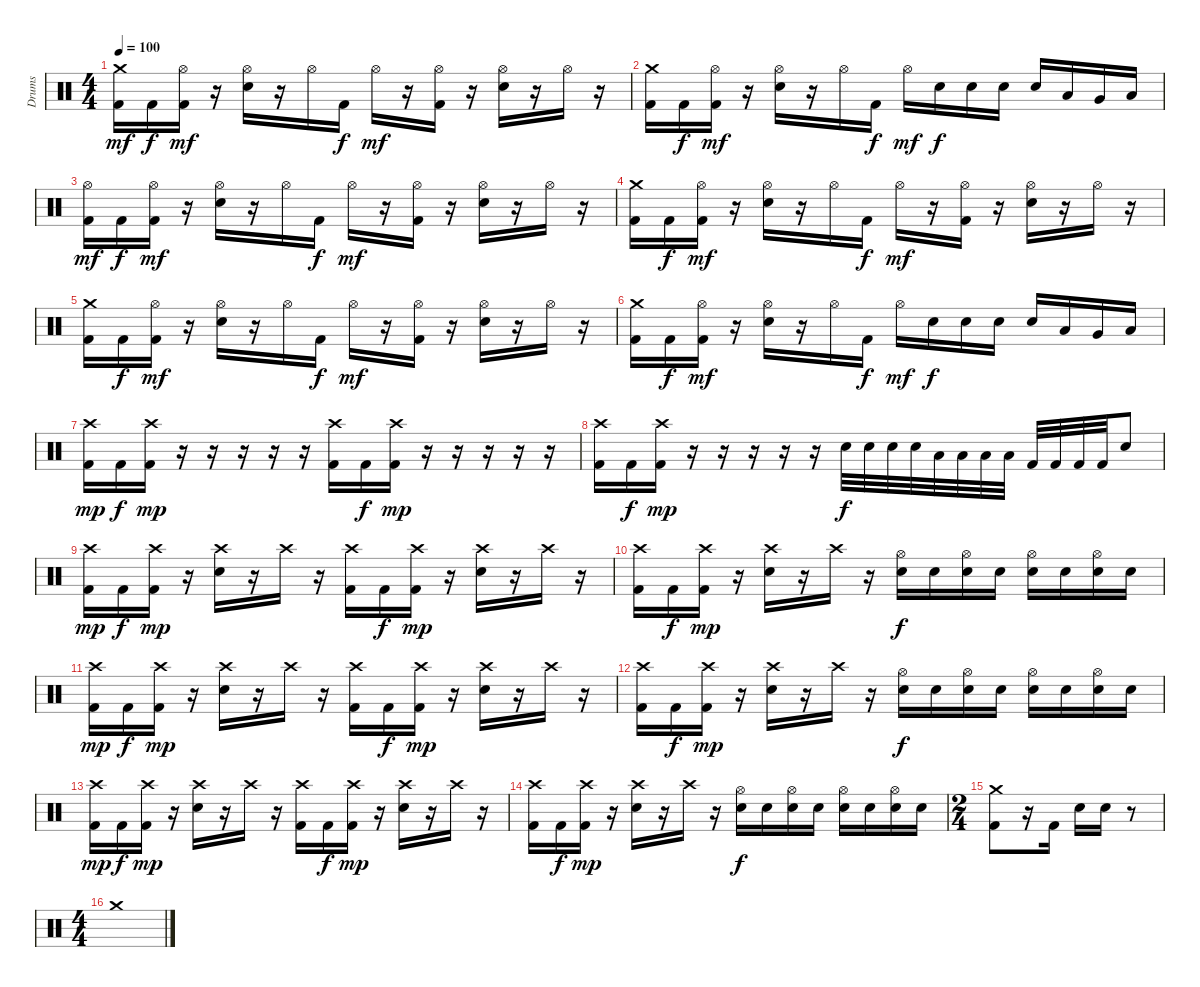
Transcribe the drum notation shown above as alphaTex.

\track ("Drums" "Drums") {instrument percussion}
\staff {score}
\articulation defaults
\ts (4 4)
\tempo 100
\clef neutral
\ks c
("Crash medium (hit)" "Kick (hit) 2").16{dy mf} "Kick (hit) 2".16{dy f} ("Hi-Hat (open)" "Kick (hit) 2").16{dy mf} r.16 ("Hi-Hat (open)" "Snare (hit) 2").16 r.16 "Hi-Hat (open)".16 "Kick (hit) 2".16{dy f} "Hi-Hat (open)".16{dy mf} r.16 ("Hi-Hat (open)" "Kick (hit) 2").16 r.16 ("Hi-Hat (open)" "Snare (hit) 2").16 r.16 "Hi-Hat (open)".16 r.16 |
("Crash medium (hit)" "Kick (hit) 2").16 "Kick (hit) 2".16{dy f} ("Hi-Hat (open)" "Kick (hit) 2").16{dy mf} r.16 ("Hi-Hat (open)" "Snare (hit) 2").16 r.16 "Hi-Hat (open)".16 "Kick (hit) 2".16{dy f} "Hi-Hat (open)".16{dy mf} "Snare (hit) 2".16{dy f} "Snare (hit) 2".16 "Snare (hit) 2".16 "Snare (hit) 2".16 "Low Tom (hit)".16 "Very Low Tom (hit)".16 "Low Floor Tom (hit)".16 |
("Hi-Hat (open)" "Kick (hit) 2").16{dy mf} "Kick (hit) 2".16{dy f} ("Hi-Hat (open)" "Kick (hit) 2").16{dy mf} r.16 ("Hi-Hat (open)" "Snare (hit) 2").16 r.16 "Hi-Hat (open)".16 "Kick (hit) 2".16{dy f} "Hi-Hat (open)".16{dy mf} r.16 ("Hi-Hat (open)" "Kick (hit) 2").16 r.16 ("Hi-Hat (open)" "Snare (hit) 2").16 r.16 "Hi-Hat (open)".16 r.16 |
("Crash medium (hit)" "Kick (hit) 2").16 "Kick (hit) 2".16{dy f} ("Hi-Hat (open)" "Kick (hit) 2").16{dy mf} r.16 ("Hi-Hat (open)" "Snare (hit) 2").16 r.16 "Hi-Hat (open)".16 "Kick (hit) 2".16{dy f} "Hi-Hat (open)".16{dy mf} r.16 ("Hi-Hat (open)" "Kick (hit) 2").16 r.16 ("Hi-Hat (open)" "Snare (hit) 2").16 r.16 "Hi-Hat (open)".16 r.16 |
("Crash medium (hit)" "Kick (hit) 2").16 "Kick (hit) 2".16{dy f} ("Hi-Hat (open)" "Kick (hit) 2").16{dy mf} r.16 ("Hi-Hat (open)" "Snare (hit) 2").16 r.16 "Hi-Hat (open)".16 "Kick (hit) 2".16{dy f} "Hi-Hat (open)".16{dy mf} r.16 ("Hi-Hat (open)" "Kick (hit) 2").16 r.16 ("Hi-Hat (open)" "Snare (hit) 2").16 r.16 "Hi-Hat (open)".16 r.16 |
("Crash medium (hit)" "Kick (hit) 2").16 "Kick (hit) 2".16{dy f} ("Hi-Hat (open)" "Kick (hit) 2").16{dy mf} r.16 ("Hi-Hat (open)" "Snare (hit) 2").16 r.16 "Hi-Hat (open)".16 "Kick (hit) 2".16{dy f} "Hi-Hat (open)".16{dy mf} "Snare (hit) 2".16{dy f} "Snare (hit) 2".16 "Snare (hit) 2".16 "Snare (hit) 2".16 "Low Tom (hit)".16 "Very Low Tom (hit)".16 "Low Floor Tom (hit)".16 |
("Crash high (hit)" "Kick (hit) 2").16{dy mp} "Kick (hit) 2".16{dy f} ("Crash high (hit)" "Kick (hit) 2").16{dy mp} r.16 r.16 r.16 r.16 r.16 ("Crash high (hit)" "Kick (hit) 2").16 "Kick (hit) 2".16{dy f} ("Crash high (hit)" "Kick (hit) 2").16{dy mp} r.16 r.16 r.16 r.16 r.16 |
("Crash high (hit)" "Kick (hit) 2").16 "Kick (hit) 2".16{dy f} ("Crash high (hit)" "Kick (hit) 2").16{dy mp} r.16 r.16 r.16 r.16 r.16 "Snare (hit) 2".32{dy f} "Snare (hit) 2".32 "Snare (hit) 2".32 "Snare (hit) 2".32 "Low Tom (hit)".32 "Low Tom (hit)".32 "Low Tom (hit)".32 "Low Tom (hit)".32 "Kick (hit) 2".32 "Kick (hit) 2".32 "Kick (hit) 2".32 "Kick (hit) 2".32 "Snare (hit) 2".8 |
("Crash high (hit)" "Kick (hit) 2").16{dy mp} "Kick (hit) 2".16{dy f} ("Crash high (hit)" "Kick (hit) 2").16{dy mp} r.16 ("Crash high (hit)" "Snare (hit) 2").16 r.16 "Crash high (hit)".16 r.16 ("Crash high (hit)" "Kick (hit) 2").16 "Kick (hit) 2".16{dy f} ("Crash high (hit)" "Kick (hit) 2").16{dy mp} r.16 ("Crash high (hit)" "Snare (hit) 2").16 r.16 "Crash high (hit)".16 r.16 |
("Crash high (hit)" "Kick (hit) 2").16 "Kick (hit) 2".16{dy f} ("Crash high (hit)" "Kick (hit) 2").16{dy mp} r.16 ("Crash high (hit)" "Snare (hit) 2").16 r.16 "Crash high (hit)".16 r.16 ("Hi-Hat (open)" "Snare (hit) 2").16{dy f} "Snare (hit) 2".16 ("Hi-Hat (open)" "Snare (hit) 2").16 "Snare (hit) 2".16 ("Hi-Hat (open)" "Snare (hit) 2").16 "Snare (hit) 2".16 ("Hi-Hat (open)" "Snare (hit) 2").16 "Snare (hit) 2".16 |
("Crash high (hit)" "Kick (hit) 2").16{dy mp} "Kick (hit) 2".16{dy f} ("Crash high (hit)" "Kick (hit) 2").16{dy mp} r.16 ("Crash high (hit)" "Snare (hit) 2").16 r.16 "Crash high (hit)".16 r.16 ("Crash high (hit)" "Kick (hit) 2").16 "Kick (hit) 2".16{dy f} ("Crash high (hit)" "Kick (hit) 2").16{dy mp} r.16 ("Crash high (hit)" "Snare (hit) 2").16 r.16 "Crash high (hit)".16 r.16 |
("Crash high (hit)" "Kick (hit) 2").16 "Kick (hit) 2".16{dy f} ("Crash high (hit)" "Kick (hit) 2").16{dy mp} r.16 ("Crash high (hit)" "Snare (hit) 2").16 r.16 "Crash high (hit)".16 r.16 ("Hi-Hat (open)" "Snare (hit) 2").16{dy f} "Snare (hit) 2".16 ("Hi-Hat (open)" "Snare (hit) 2").16 "Snare (hit) 2".16 ("Hi-Hat (open)" "Snare (hit) 2").16 "Snare (hit) 2".16 ("Hi-Hat (open)" "Snare (hit) 2").16 "Snare (hit) 2".16 |
("Crash high (hit)" "Kick (hit) 2").16{dy mp} "Kick (hit) 2".16{dy f} ("Crash high (hit)" "Kick (hit) 2").16{dy mp} r.16 ("Crash high (hit)" "Snare (hit) 2").16 r.16 "Crash high (hit)".16 r.16 ("Crash high (hit)" "Kick (hit) 2").16 "Kick (hit) 2".16{dy f} ("Crash high (hit)" "Kick (hit) 2").16{dy mp} r.16 ("Crash high (hit)" "Snare (hit) 2").16 r.16 "Crash high (hit)".16 r.16 |
("Crash high (hit)" "Kick (hit) 2").16 "Kick (hit) 2".16{dy f} ("Crash high (hit)" "Kick (hit) 2").16{dy mp} r.16 ("Crash high (hit)" "Snare (hit) 2").16 r.16 "Crash high (hit)".16 r.16 ("Hi-Hat (open)" "Snare (hit) 2").16{dy f} "Snare (hit) 2".16 ("Hi-Hat (open)" "Snare (hit) 2").16 "Snare (hit) 2".16 ("Hi-Hat (open)" "Snare (hit) 2").16 "Snare (hit) 2".16 ("Hi-Hat (open)" "Snare (hit) 2").16 "Snare (hit) 2".16 |
\ts (2 4)
("Crash medium (hit)" "Kick (hit) 2").8 r.16 "Kick (hit) 2".16 "Snare (hit) 2".16 "Snare (hit) 2".16 r.8 |
\ts (4 4)
"Crash medium (hit)".1
